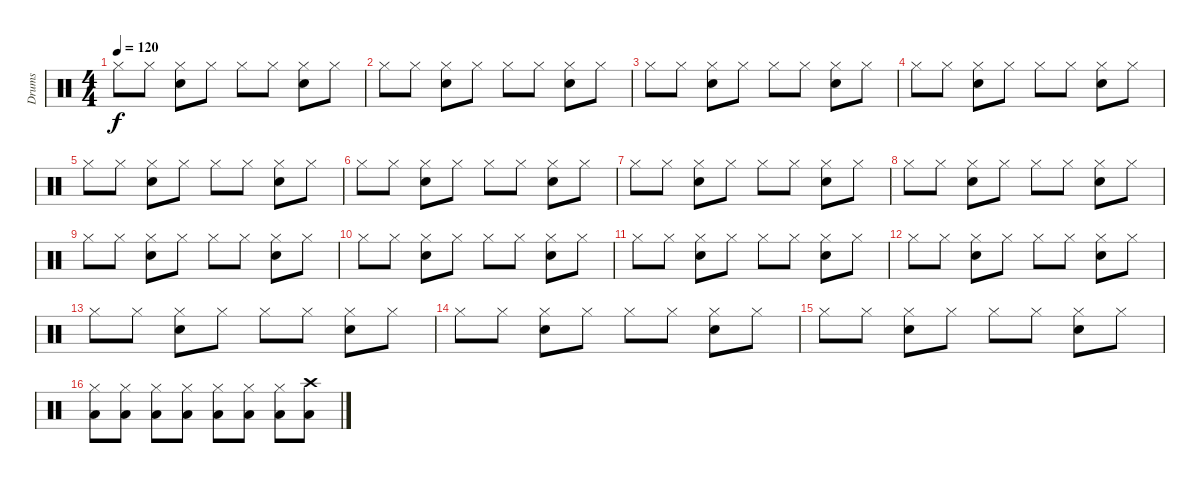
\track ("Drums" "Drums") {instrument percussion}
\staff {score}
\articulation defaults
\ts (4 4)
\tempo 120
\clef neutral
\ks c "Hi-Hat (closed)".8{dy f} "Hi-Hat (closed)".8
("Hi-Hat (closed)" "Electric Snare (hit)").8 "Hi-Hat (closed)".8 "Hi-Hat (closed)".8 "Hi-Hat (closed)".8 ("Hi-Hat (closed)" "Electric Snare (hit)").8 "Hi-Hat (closed)".8 |
"Hi-Hat (closed)".8 "Hi-Hat (closed)".8 ("Hi-Hat (closed)" "Electric Snare (hit)").8 "Hi-Hat (closed)".8 "Hi-Hat (closed)".8 "Hi-Hat (closed)".8 ("Hi-Hat (closed)" "Electric Snare (hit)").8 "Hi-Hat (closed)".8 |
"Hi-Hat (closed)".8 "Hi-Hat (closed)".8 ("Hi-Hat (closed)" "Electric Snare (hit)").8 "Hi-Hat (closed)".8 "Hi-Hat (closed)".8 "Hi-Hat (closed)".8 ("Hi-Hat (closed)" "Electric Snare (hit)").8 "Hi-Hat (closed)".8 |
"Hi-Hat (closed)".8 "Hi-Hat (closed)".8 ("Hi-Hat (closed)" "Electric Snare (hit)").8 "Hi-Hat (closed)".8 "Hi-Hat (closed)".8 "Hi-Hat (closed)".8 ("Hi-Hat (closed)" "Electric Snare (hit)").8 "Hi-Hat (closed)".8 |
"Hi-Hat (closed)".8 "Hi-Hat (closed)".8 ("Hi-Hat (closed)" "Electric Snare (hit)").8 "Hi-Hat (closed)".8 "Hi-Hat (closed)".8 "Hi-Hat (closed)".8 ("Hi-Hat (closed)" "Electric Snare (hit)").8 "Hi-Hat (closed)".8 |
"Hi-Hat (closed)".8 "Hi-Hat (closed)".8 ("Hi-Hat (closed)" "Electric Snare (hit)").8 "Hi-Hat (closed)".8 "Hi-Hat (closed)".8 "Hi-Hat (closed)".8 ("Hi-Hat (closed)" "Electric Snare (hit)").8 "Hi-Hat (closed)".8 |
"Hi-Hat (closed)".8 "Hi-Hat (closed)".8 ("Hi-Hat (closed)" "Electric Snare (hit)").8 "Hi-Hat (closed)".8 "Hi-Hat (closed)".8 "Hi-Hat (closed)".8 ("Hi-Hat (closed)" "Electric Snare (hit)").8 "Hi-Hat (closed)".8 |
"Hi-Hat (closed)".8 "Hi-Hat (closed)".8 ("Hi-Hat (closed)" "Electric Snare (hit)").8 "Hi-Hat (closed)".8 "Hi-Hat (closed)".8 "Hi-Hat (closed)".8 ("Hi-Hat (closed)" "Electric Snare (hit)").8 "Hi-Hat (closed)".8 |
"Hi-Hat (closed)".8 "Hi-Hat (closed)".8 ("Hi-Hat (closed)" "Electric Snare (hit)").8 "Hi-Hat (closed)".8 "Hi-Hat (closed)".8 "Hi-Hat (closed)".8 ("Hi-Hat (closed)" "Electric Snare (hit)").8 "Hi-Hat (closed)".8 |
"Hi-Hat (closed)".8 "Hi-Hat (closed)".8 ("Hi-Hat (closed)" "Electric Snare (hit)").8 "Hi-Hat (closed)".8 "Hi-Hat (closed)".8 "Hi-Hat (closed)".8 ("Hi-Hat (closed)" "Electric Snare (hit)").8 "Hi-Hat (closed)".8 |
"Hi-Hat (closed)".8 "Hi-Hat (closed)".8 ("Hi-Hat (closed)" "Electric Snare (hit)").8 "Hi-Hat (closed)".8 "Hi-Hat (closed)".8 "Hi-Hat (closed)".8 ("Hi-Hat (closed)" "Electric Snare (hit)").8 "Hi-Hat (closed)".8 |
"Hi-Hat (closed)".8 "Hi-Hat (closed)".8 ("Hi-Hat (closed)" "Electric Snare (hit)").8 "Hi-Hat (closed)".8 "Hi-Hat (closed)".8 "Hi-Hat (closed)".8 ("Hi-Hat (closed)" "Electric Snare (hit)").8 "Hi-Hat (closed)".8 |
"Hi-Hat (closed)".8 "Hi-Hat (closed)".8 ("Hi-Hat (closed)" "Electric Snare (hit)").8 "Hi-Hat (closed)".8 "Hi-Hat (closed)".8 "Hi-Hat (closed)".8 ("Hi-Hat (closed)" "Electric Snare (hit)").8 "Hi-Hat (closed)".8 |
"Hi-Hat (closed)".8 "Hi-Hat (closed)".8 ("Hi-Hat (closed)" "Electric Snare (hit)").8 "Hi-Hat (closed)".8 "Hi-Hat (closed)".8 "Hi-Hat (closed)".8 ("Hi-Hat (closed)" "Electric Snare (hit)").8 "Hi-Hat (closed)".8 |
"Hi-Hat (closed)".8 "Hi-Hat (closed)".8 ("Hi-Hat (closed)" "Electric Snare (hit)").8 "Hi-Hat (closed)".8 "Hi-Hat (closed)".8 "Hi-Hat (closed)".8 ("Hi-Hat (closed)" "Electric Snare (hit)").8 "Hi-Hat (closed)".8 |
("Low Floor Tom (hit)" "Hi-Hat (closed)").8 ("Low Floor Tom (hit)" "Hi-Hat (closed)").8 ("Low Floor Tom (hit)" "Hi-Hat (closed)").8 ("Low Floor Tom (hit)" "Hi-Hat (closed)").8 ("Low Floor Tom (hit)" "Hi-Hat (closed)").8 ("Low Floor Tom (hit)" "Hi-Hat (closed)").8 ("Low Floor Tom (hit)" "Hi-Hat (closed)").8 ("Low Floor Tom (hit)" "Crash high (hit)").8
